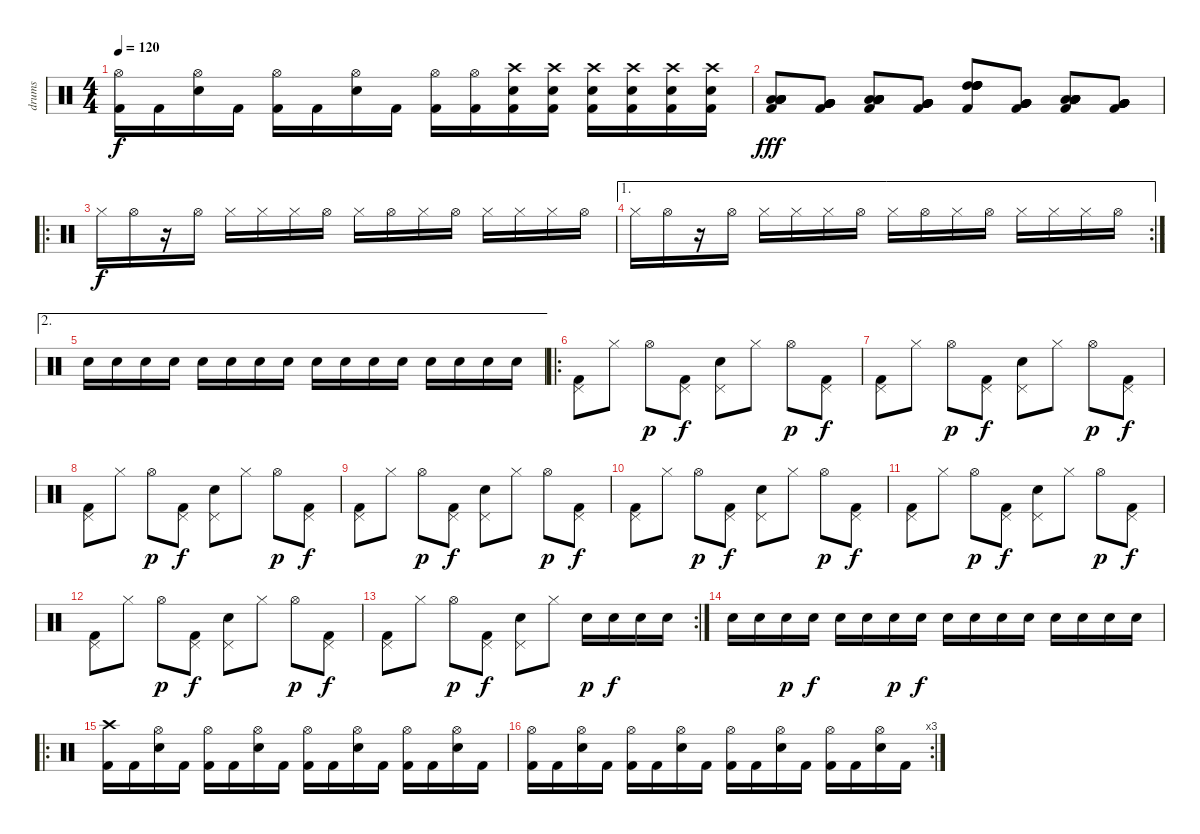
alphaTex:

\track ("drums" "drums") {instrument percussion}
\staff {score}
\articulation defaults
\ts (4 4)
\tempo 120
\clef neutral
\ks c
("Hi-Hat (open)" "Kick (hit) 2").16{dy f} "Kick (hit) 2".16 ("Hi-Hat (open)" "Electric Snare (hit)").16 "Kick (hit) 2".16 ("Hi-Hat (open)" "Kick (hit) 2").16 "Kick (hit) 2".16 ("Hi-Hat (open)" "Electric Snare (hit)").16 "Kick (hit) 2".16 ("Hi-Hat (open)" "Kick (hit) 2").16 ("Hi-Hat (open)" "Kick (hit) 2").16 ("Crash high (hit)" "Kick (hit) 2" "Electric Snare (hit)").16 ("Crash high (hit)" "Kick (hit) 2" "Electric Snare (hit)").16 ("Crash high (hit)" "Kick (hit) 2" "Electric Snare (hit)").16 ("Crash high (hit)" "Kick (hit) 2" "Electric Snare (hit)").16 ("Crash high (hit)" "Kick (hit) 2" "Electric Snare (hit)").16 ("Crash high (hit)" "Kick (hit) 2" "Electric Snare (hit)").16 |
("Low Tom (hit)" "Low Tom (hit)" "Low Tom (hit)" "Low Tom (hit)" "Low Tom (hit)" "Kick (hit) 2").8{dy fff} ("Very Low Tom (hit)" "Very Low Tom (hit)" "Very Low Tom (hit)" "Very Low Tom (hit)" "Very Low Tom (hit)" "Kick (hit) 2").8 ("Low Floor Tom (hit)" "Low Floor Tom (hit)" "Low Floor Tom (hit)" "Low Floor Tom (hit)" "Low Floor Tom (hit)" "Kick (hit) 2").8 ("Very Low Tom (hit)" "Very Low Tom (hit)" "Very Low Tom (hit)" "Very Low Tom (hit)" "Very Low Tom (hit)" "Kick (hit) 2").8 ("High Tom (hit)" "High Tom (hit)" "High Tom (hit)" "High Tom (hit)" "High Tom (hit)" "Kick (hit) 2").8 ("Very Low Tom (hit)" "Very Low Tom (hit)" "Very Low Tom (hit)" "Very Low Tom (hit)" "Very Low Tom (hit)" "Kick (hit) 2").8 ("Low Floor Tom (hit)" "Low Floor Tom (hit)" "Low Floor Tom (hit)" "Low Floor Tom (hit)" "Low Floor Tom (hit)" "Kick (hit) 2").8 ("Very Low Tom (hit)" "Very Low Tom (hit)" "Very Low Tom (hit)" "Very Low Tom (hit)" "Very Low Tom (hit)" "Kick (hit) 2").8 |
\ro "Hi-Hat (closed)".16{dy f} "Hi-Hat (open)".16
r.16 "Hi-Hat (open)".16 "Hi-Hat (closed)".16 "Hi-Hat (closed)".16 "Hi-Hat (closed)".16 "Hi-Hat (open)".16 "Hi-Hat (closed)".16 "Hi-Hat (open)".16 "Hi-Hat (closed)".16 "Hi-Hat (open)".16 "Hi-Hat (closed)".16 "Hi-Hat (closed)".16 "Hi-Hat (closed)".16 "Hi-Hat (open)".16 |
\ae 1
\rc 2 "Hi-Hat (closed)".16 "Hi-Hat (open)".16
r.16 "Hi-Hat (open)".16 "Hi-Hat (closed)".16 "Hi-Hat (closed)".16 "Hi-Hat (closed)".16 "Hi-Hat (open)".16 "Hi-Hat (closed)".16 "Hi-Hat (open)".16 "Hi-Hat (closed)".16 "Hi-Hat (open)".16 "Hi-Hat (closed)".16 "Hi-Hat (closed)".16 "Hi-Hat (closed)".16 "Hi-Hat (open)".16 |
\ae 2 "Electric Snare (hit)".16 "Electric Snare (hit)".16 "Electric Snare (hit)".16 "Electric Snare (hit)".16 "Electric Snare (hit)".16 "Electric Snare (hit)".16 "Electric Snare (hit)".16 "Electric Snare (hit)".16 "Electric Snare (hit)".16 "Electric Snare (hit)".16 "Electric Snare (hit)".16 "Electric Snare (hit)".16 "Electric Snare (hit)".16 "Electric Snare (hit)".16 "Electric Snare (hit)".16 "Electric Snare (hit)".16
|
\ro
("Pedal Hi-Hat (hit)" "Kick (hit) 2").8 "Hi-Hat (closed)".8 "Hi-Hat (open)".8{dy p} ("Pedal Hi-Hat (hit)" "Kick (hit) 2").8{dy f} ("Pedal Hi-Hat (hit)" "Electric Snare (hit)").8 "Hi-Hat (closed)".8 "Hi-Hat (open)".8{dy p} ("Pedal Hi-Hat (hit)" "Kick (hit) 2").8{dy f} |
("Pedal Hi-Hat (hit)" "Kick (hit) 2").8 "Hi-Hat (closed)".8 "Hi-Hat (open)".8{dy p} ("Pedal Hi-Hat (hit)" "Kick (hit) 2").8{dy f} ("Pedal Hi-Hat (hit)" "Electric Snare (hit)").8 "Hi-Hat (closed)".8 "Hi-Hat (open)".8{dy p} ("Pedal Hi-Hat (hit)" "Kick (hit) 2").8{dy f} |
("Pedal Hi-Hat (hit)" "Kick (hit) 2").8 "Hi-Hat (closed)".8 "Hi-Hat (open)".8{dy p} ("Pedal Hi-Hat (hit)" "Kick (hit) 2").8{dy f} ("Pedal Hi-Hat (hit)" "Electric Snare (hit)").8 "Hi-Hat (closed)".8 "Hi-Hat (open)".8{dy p} ("Pedal Hi-Hat (hit)" "Kick (hit) 2").8{dy f} |
("Pedal Hi-Hat (hit)" "Kick (hit) 2").8 "Hi-Hat (closed)".8 "Hi-Hat (open)".8{dy p} ("Pedal Hi-Hat (hit)" "Kick (hit) 2").8{dy f} ("Pedal Hi-Hat (hit)" "Electric Snare (hit)").8 "Hi-Hat (closed)".8 "Hi-Hat (open)".8{dy p} ("Pedal Hi-Hat (hit)" "Kick (hit) 2").8{dy f} |
("Pedal Hi-Hat (hit)" "Kick (hit) 2").8 "Hi-Hat (closed)".8 "Hi-Hat (open)".8{dy p} ("Pedal Hi-Hat (hit)" "Kick (hit) 2").8{dy f} ("Pedal Hi-Hat (hit)" "Electric Snare (hit)").8 "Hi-Hat (closed)".8 "Hi-Hat (open)".8{dy p} ("Pedal Hi-Hat (hit)" "Kick (hit) 2").8{dy f} |
("Pedal Hi-Hat (hit)" "Kick (hit) 2").8 "Hi-Hat (closed)".8 "Hi-Hat (open)".8{dy p} ("Pedal Hi-Hat (hit)" "Kick (hit) 2").8{dy f} ("Pedal Hi-Hat (hit)" "Electric Snare (hit)").8 "Hi-Hat (closed)".8 "Hi-Hat (open)".8{dy p} ("Pedal Hi-Hat (hit)" "Kick (hit) 2").8{dy f} |
("Pedal Hi-Hat (hit)" "Kick (hit) 2").8 "Hi-Hat (closed)".8 "Hi-Hat (open)".8{dy p} ("Pedal Hi-Hat (hit)" "Kick (hit) 2").8{dy f} ("Pedal Hi-Hat (hit)" "Electric Snare (hit)").8 "Hi-Hat (closed)".8 "Hi-Hat (open)".8{dy p} ("Pedal Hi-Hat (hit)" "Kick (hit) 2").8{dy f} |
\rc 2
("Pedal Hi-Hat (hit)" "Kick (hit) 2").8 "Hi-Hat (closed)".8 "Hi-Hat (open)".8{dy p} ("Pedal Hi-Hat (hit)" "Kick (hit) 2").8{dy f} ("Pedal Hi-Hat (hit)" "Electric Snare (hit)").8 "Hi-Hat (closed)".8 "Electric Snare (hit)".16{dy p} "Electric Snare (hit)".16{dy f} "Electric Snare (hit)".16 "Electric Snare (hit)".16 |
"Electric Snare (hit)".16 "Electric Snare (hit)".16 "Electric Snare (hit)".16{dy p} "Electric Snare (hit)".16{dy f} "Electric Snare (hit)".16 "Electric Snare (hit)".16 "Electric Snare (hit)".16{dy p} "Electric Snare (hit)".16{dy f} "Electric Snare (hit)".16 "Electric Snare (hit)".16 "Electric Snare (hit)".16 "Electric Snare (hit)".16 "Electric Snare (hit)".16 "Electric Snare (hit)".16 "Electric Snare (hit)".16 "Electric Snare (hit)".16 |
\ro
("Crash high (hit)" "Kick (hit) 2").16 "Kick (hit) 2".16 ("Hi-Hat (open)" "Electric Snare (hit)").16 "Kick (hit) 2".16 ("Hi-Hat (open)" "Kick (hit) 2").16 "Kick (hit) 2".16 ("Hi-Hat (open)" "Electric Snare (hit)").16 "Kick (hit) 2".16 ("Hi-Hat (open)" "Kick (hit) 2").16 "Kick (hit) 2".16 ("Hi-Hat (open)" "Electric Snare (hit)").16 "Kick (hit) 2".16 ("Hi-Hat (open)" "Kick (hit) 2").16 "Kick (hit) 2".16 ("Hi-Hat (open)" "Electric Snare (hit)").16 "Kick (hit) 2".16 |
\rc 3
("Hi-Hat (open)" "Kick (hit) 2").16 "Kick (hit) 2".16 ("Hi-Hat (open)" "Electric Snare (hit)").16 "Kick (hit) 2".16 ("Hi-Hat (open)" "Kick (hit) 2").16 "Kick (hit) 2".16 ("Hi-Hat (open)" "Electric Snare (hit)").16 "Kick (hit) 2".16 ("Hi-Hat (open)" "Kick (hit) 2").16 "Kick (hit) 2".16 ("Hi-Hat (open)" "Electric Snare (hit)").16 "Kick (hit) 2".16 ("Hi-Hat (open)" "Kick (hit) 2").16 "Kick (hit) 2".16 ("Hi-Hat (open)" "Electric Snare (hit)").16 "Kick (hit) 2".16
